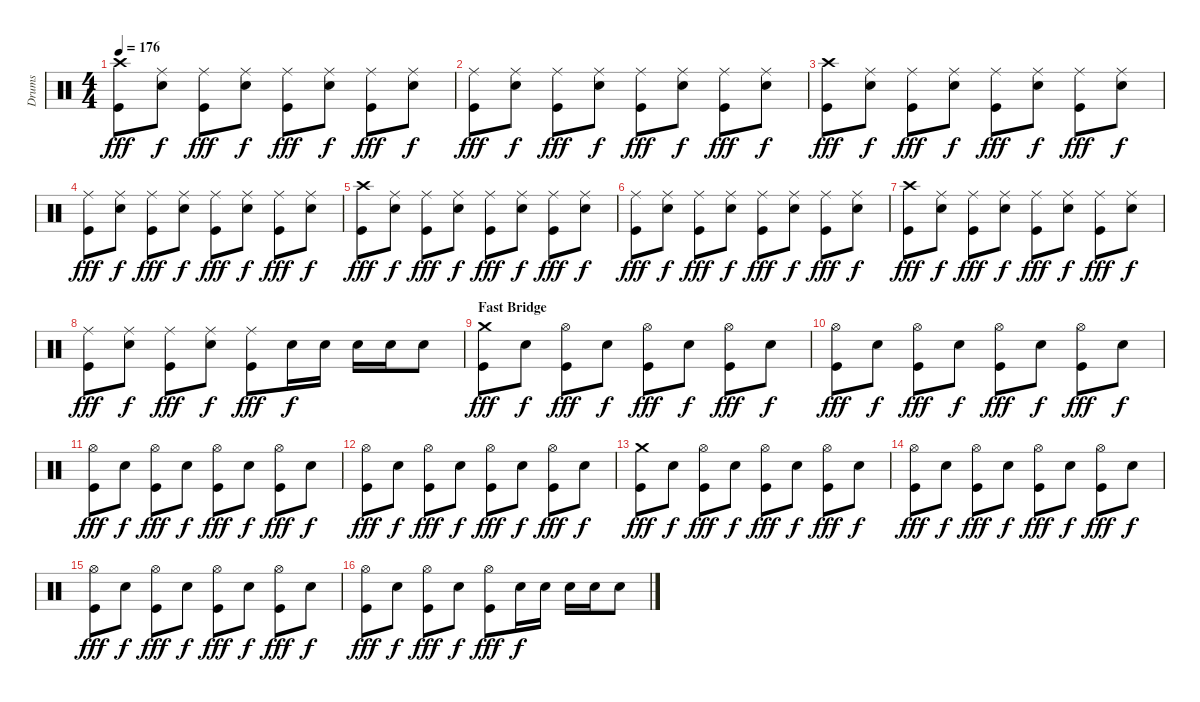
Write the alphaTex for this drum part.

\track ("Drums" "Drums") {instrument percussion}
\staff {score}
\articulation defaults
\ts (4 4)
\tempo 176
\clef neutral
\ks c
("Crash high (hit)" "Kick (hit)").8{dy fff} ("Ride (middle)" "Snare (hit) 2").8{dy f} ("Ride (middle)" "Kick (hit)").8{dy fff} ("Ride (middle)" "Snare (hit) 2").8{dy f} ("Ride (middle)" "Kick (hit)").8{dy fff} ("Ride (middle)" "Snare (hit) 2").8{dy f} ("Ride (middle)" "Kick (hit)").8{dy fff} ("Ride (middle)" "Snare (hit) 2").8{dy f} |
("Ride (middle)" "Kick (hit)").8{dy fff} ("Ride (middle)" "Snare (hit) 2").8{dy f} ("Ride (middle)" "Kick (hit)").8{dy fff} ("Ride (middle)" "Snare (hit) 2").8{dy f} ("Ride (middle)" "Kick (hit)").8{dy fff} ("Ride (middle)" "Snare (hit) 2").8{dy f} ("Ride (middle)" "Kick (hit)").8{dy fff} ("Ride (middle)" "Snare (hit) 2").8{dy f} |
("Crash high (hit)" "Kick (hit)").8{dy fff} ("Ride (middle)" "Snare (hit) 2").8{dy f} ("Ride (middle)" "Kick (hit)").8{dy fff} ("Ride (middle)" "Snare (hit) 2").8{dy f} ("Ride (middle)" "Kick (hit)").8{dy fff} ("Ride (middle)" "Snare (hit) 2").8{dy f} ("Ride (middle)" "Kick (hit)").8{dy fff} ("Ride (middle)" "Snare (hit) 2").8{dy f} |
("Ride (middle)" "Kick (hit)").8{dy fff} ("Ride (middle)" "Snare (hit) 2").8{dy f} ("Ride (middle)" "Kick (hit)").8{dy fff} ("Ride (middle)" "Snare (hit) 2").8{dy f} ("Ride (middle)" "Kick (hit)").8{dy fff} ("Ride (middle)" "Snare (hit) 2").8{dy f} ("Ride (middle)" "Kick (hit)").8{dy fff} ("Ride (middle)" "Snare (hit) 2").8{dy f} |
("Crash high (hit)" "Kick (hit)").8{dy fff} ("Ride (middle)" "Snare (hit) 2").8{dy f} ("Ride (middle)" "Kick (hit)").8{dy fff} ("Ride (middle)" "Snare (hit) 2").8{dy f} ("Ride (middle)" "Kick (hit)").8{dy fff} ("Ride (middle)" "Snare (hit) 2").8{dy f} ("Ride (middle)" "Kick (hit)").8{dy fff} ("Ride (middle)" "Snare (hit) 2").8{dy f} |
("Ride (middle)" "Kick (hit)").8{dy fff} ("Ride (middle)" "Snare (hit) 2").8{dy f} ("Ride (middle)" "Kick (hit)").8{dy fff} ("Ride (middle)" "Snare (hit) 2").8{dy f} ("Ride (middle)" "Kick (hit)").8{dy fff} ("Ride (middle)" "Snare (hit) 2").8{dy f} ("Ride (middle)" "Kick (hit)").8{dy fff} ("Ride (middle)" "Snare (hit) 2").8{dy f} |
("Crash high (hit)" "Kick (hit)").8{dy fff} ("Ride (middle)" "Snare (hit) 2").8{dy f} ("Ride (middle)" "Kick (hit)").8{dy fff} ("Ride (middle)" "Snare (hit) 2").8{dy f} ("Ride (middle)" "Kick (hit)").8{dy fff} ("Ride (middle)" "Snare (hit) 2").8{dy f} ("Ride (middle)" "Kick (hit)").8{dy fff} ("Ride (middle)" "Snare (hit) 2").8{dy f} |
("Ride (middle)" "Kick (hit)").8{dy fff} ("Ride (middle)" "Snare (hit) 2").8{dy f} ("Ride (middle)" "Kick (hit)").8{dy fff} ("Ride (middle)" "Snare (hit) 2").8{dy f} ("Ride (middle)" "Kick (hit)").8{dy fff} "Snare (hit) 2".16{dy f} "Snare (hit) 2".16 "Snare (hit) 2".16 "Snare (hit) 2".16 "Snare (hit) 2".8 |
\section ("" "Fast Bridge")
("Crash medium (hit)" "Kick (hit)").8{dy fff} "Snare (hit) 2".8{dy f} ("Hi-Hat (open)" "Kick (hit)").8{dy fff} "Snare (hit) 2".8{dy f} ("Hi-Hat (open)" "Kick (hit)").8{dy fff} "Snare (hit) 2".8{dy f} ("Hi-Hat (open)" "Kick (hit)").8{dy fff} "Snare (hit) 2".8{dy f} |
("Hi-Hat (open)" "Kick (hit)").8{dy fff} "Snare (hit) 2".8{dy f} ("Hi-Hat (open)" "Kick (hit)").8{dy fff} "Snare (hit) 2".8{dy f} ("Hi-Hat (open)" "Kick (hit)").8{dy fff} "Snare (hit) 2".8{dy f} ("Hi-Hat (open)" "Kick (hit)").8{dy fff} "Snare (hit) 2".8{dy f} |
("Hi-Hat (open)" "Kick (hit)").8{dy fff} "Snare (hit) 2".8{dy f} ("Hi-Hat (open)" "Kick (hit)").8{dy fff} "Snare (hit) 2".8{dy f} ("Hi-Hat (open)" "Kick (hit)").8{dy fff} "Snare (hit) 2".8{dy f} ("Hi-Hat (open)" "Kick (hit)").8{dy fff} "Snare (hit) 2".8{dy f} |
("Hi-Hat (open)" "Kick (hit)").8{dy fff} "Snare (hit) 2".8{dy f} ("Hi-Hat (open)" "Kick (hit)").8{dy fff} "Snare (hit) 2".8{dy f} ("Hi-Hat (open)" "Kick (hit)").8{dy fff} "Snare (hit) 2".8{dy f} ("Hi-Hat (open)" "Kick (hit)").8{dy fff} "Snare (hit) 2".8{dy f} |
("Crash medium (hit)" "Kick (hit)").8{dy fff} "Snare (hit) 2".8{dy f} ("Hi-Hat (open)" "Kick (hit)").8{dy fff} "Snare (hit) 2".8{dy f} ("Hi-Hat (open)" "Kick (hit)").8{dy fff} "Snare (hit) 2".8{dy f} ("Hi-Hat (open)" "Kick (hit)").8{dy fff} "Snare (hit) 2".8{dy f} |
("Hi-Hat (open)" "Kick (hit)").8{dy fff} "Snare (hit) 2".8{dy f} ("Hi-Hat (open)" "Kick (hit)").8{dy fff} "Snare (hit) 2".8{dy f} ("Hi-Hat (open)" "Kick (hit)").8{dy fff} "Snare (hit) 2".8{dy f} ("Hi-Hat (open)" "Kick (hit)").8{dy fff} "Snare (hit) 2".8{dy f} |
("Hi-Hat (open)" "Kick (hit)").8{dy fff} "Snare (hit) 2".8{dy f} ("Hi-Hat (open)" "Kick (hit)").8{dy fff} "Snare (hit) 2".8{dy f} ("Hi-Hat (open)" "Kick (hit)").8{dy fff} "Snare (hit) 2".8{dy f} ("Hi-Hat (open)" "Kick (hit)").8{dy fff} "Snare (hit) 2".8{dy f} |
("Hi-Hat (open)" "Kick (hit)").8{dy fff} "Snare (hit) 2".8{dy f} ("Hi-Hat (open)" "Kick (hit)").8{dy fff} "Snare (hit) 2".8{dy f} ("Hi-Hat (open)" "Kick (hit)").8{dy fff} "Snare (hit) 2".16{dy f} "Snare (hit) 2".16 "Snare (hit) 2".16 "Snare (hit) 2".16 "Snare (hit) 2".8
